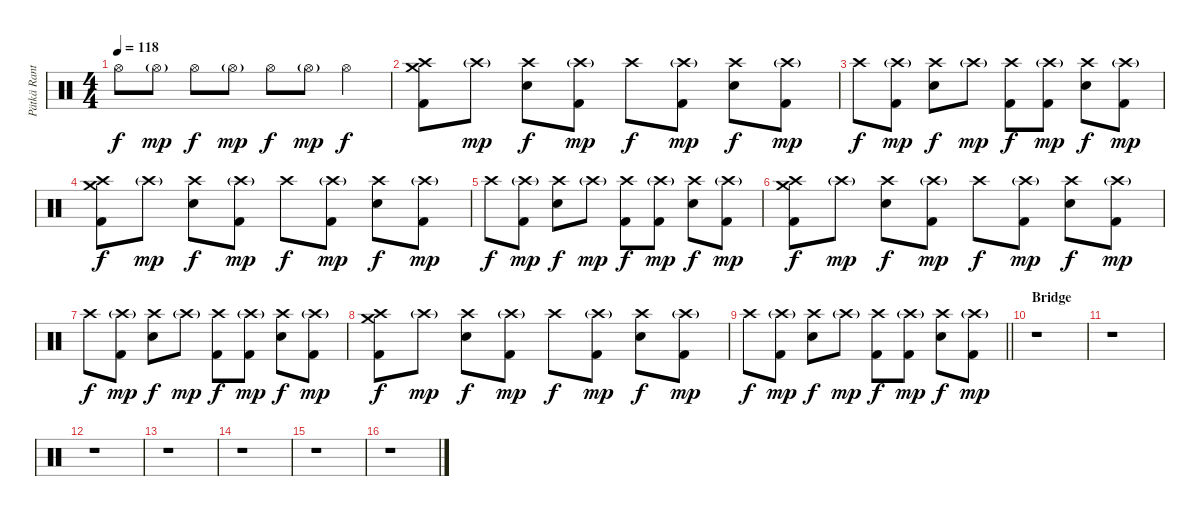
\track ("Pätkä Rantala (Drums)" "Pätkä Rant") {instrument percussion}
\staff {score}
\articulation defaults
\ts (4 4)
\tempo 118
\clef neutral
\ks c "Hi-Hat (open)".8{dy f} "Hi-Hat (open)"{g}.8{dy mp} "Hi-Hat (open)".8{dy f} "Hi-Hat (open)"{g}.8{dy mp} "Hi-Hat (open)".8{dy f} "Hi-Hat (open)"{g}.8{dy mp} "Hi-Hat (open)".4{dy f}
|
("Crash medium (hit)" "Crash high (hit)" "Kick (hit) 2").8 "Crash high (hit)"{g}.8{dy mp} ("Crash high (hit)" "Snare (hit) 2").8{dy f} ("Crash high (hit)"{g} "Kick (hit) 2").8{dy mp} "Crash high (hit)".8{dy f} ("Crash high (hit)"{g} "Kick (hit) 2").8{dy mp} ("Crash high (hit)" "Snare (hit) 2").8{dy f} ("Crash high (hit)"{g} "Kick (hit) 2").8{dy mp} |
"Crash high (hit)".8{dy f} ("Crash high (hit)"{g} "Kick (hit) 2").8{dy mp} ("Crash high (hit)" "Snare (hit) 2").8{dy f} "Crash high (hit)"{g}.8{dy mp} ("Crash high (hit)" "Kick (hit) 2").8{dy f} ("Crash high (hit)"{g} "Kick (hit) 2").8{dy mp} ("Crash high (hit)" "Snare (hit) 2").8{dy f} ("Crash high (hit)"{g} "Kick (hit) 2").8{dy mp} |
("Crash medium (hit)" "Crash high (hit)" "Kick (hit) 2").8{dy f} "Crash high (hit)"{g}.8{dy mp} ("Crash high (hit)" "Snare (hit) 2").8{dy f} ("Crash high (hit)"{g} "Kick (hit) 2").8{dy mp} "Crash high (hit)".8{dy f} ("Crash high (hit)"{g} "Kick (hit) 2").8{dy mp} ("Crash high (hit)" "Snare (hit) 2").8{dy f} ("Crash high (hit)"{g} "Kick (hit) 2").8{dy mp} |
"Crash high (hit)".8{dy f} ("Crash high (hit)"{g} "Kick (hit) 2").8{dy mp} ("Crash high (hit)" "Snare (hit) 2").8{dy f} "Crash high (hit)"{g}.8{dy mp} ("Crash high (hit)" "Kick (hit) 2").8{dy f} ("Crash high (hit)"{g} "Kick (hit) 2").8{dy mp} ("Crash high (hit)" "Snare (hit) 2").8{dy f} ("Crash high (hit)"{g} "Kick (hit) 2").8{dy mp} |
("Crash medium (hit)" "Crash high (hit)" "Kick (hit) 2").8{dy f} "Crash high (hit)"{g}.8{dy mp} ("Crash high (hit)" "Snare (hit) 2").8{dy f} ("Crash high (hit)"{g} "Kick (hit) 2").8{dy mp} "Crash high (hit)".8{dy f} ("Crash high (hit)"{g} "Kick (hit) 2").8{dy mp} ("Crash high (hit)" "Snare (hit) 2").8{dy f} ("Crash high (hit)"{g} "Kick (hit) 2").8{dy mp} |
"Crash high (hit)".8{dy f} ("Crash high (hit)"{g} "Kick (hit) 2").8{dy mp} ("Crash high (hit)" "Snare (hit) 2").8{dy f} "Crash high (hit)"{g}.8{dy mp} ("Crash high (hit)" "Kick (hit) 2").8{dy f} ("Crash high (hit)"{g} "Kick (hit) 2").8{dy mp} ("Crash high (hit)" "Snare (hit) 2").8{dy f} ("Crash high (hit)"{g} "Kick (hit) 2").8{dy mp} |
("Crash medium (hit)" "Crash high (hit)" "Kick (hit) 2").8{dy f} "Crash high (hit)"{g}.8{dy mp} ("Crash high (hit)" "Snare (hit) 2").8{dy f} ("Crash high (hit)"{g} "Kick (hit) 2").8{dy mp} "Crash high (hit)".8{dy f} ("Crash high (hit)"{g} "Kick (hit) 2").8{dy mp} ("Crash high (hit)" "Snare (hit) 2").8{dy f} ("Crash high (hit)"{g} "Kick (hit) 2").8{dy mp} |
\barLineRight lightlight "Crash high (hit)".8{dy f}
("Crash high (hit)"{g} "Kick (hit) 2").8{dy mp} ("Crash high (hit)" "Snare (hit) 2").8{dy f} "Crash high (hit)"{g}.8{dy mp} ("Crash high (hit)" "Kick (hit) 2").8{dy f} ("Crash high (hit)"{g} "Kick (hit) 2").8{dy mp} ("Crash high (hit)" "Snare (hit) 2").8{dy f} ("Crash high (hit)"{g} "Kick (hit) 2").8{dy mp} |
\section ("" "Bridge")
r.1 |
r.1 |
r.1 |
r.1 |
r.1 |
r.1 |
r.1
